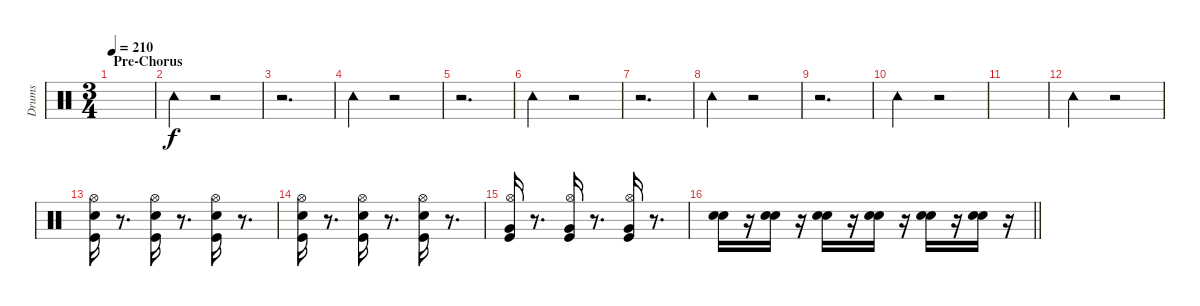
\track ("Drums" "Drums") {instrument percussion}
\staff {score}
\articulation defaults
\ts (3 4)
\section ("" "Pre-Chorus")
\tempo 210
\clef neutral
\ks c
|
"Tambourine (hit)".4 r.2 |
r.2{d} |
"Tambourine (hit)".4 r.2 |
r.2{d} |
"Tambourine (hit)".4 r.2 |
r.2{d} |
"Tambourine (hit)".4 r.2 |
r.2{d} |
"Tambourine (hit)".4 r.2 |
|
"Tambourine (hit)".4 r.2 |
("Electric Snare (hit)" "Kick (hit)" "Hi-Hat (open)").16 r.8{d} ("Electric Snare (hit)" "Kick (hit)" "Hi-Hat (open)").16 r.8{d} ("Electric Snare (hit)" "Kick (hit)" "Hi-Hat (open)").16 r.8{d} |
("Electric Snare (hit)" "Kick (hit)" "Hi-Hat (open)").16 r.8{d} ("Electric Snare (hit)" "Kick (hit)" "Hi-Hat (open)").16 r.8{d} ("Electric Snare (hit)" "Kick (hit)" "Hi-Hat (open)").16 r.8{d} |
("Kick (hit)" "Hi-Hat (open)" "Very Low Tom (hit)").16 r.8{d} ("Kick (hit)" "Hi-Hat (open)" "Very Low Tom (hit)").16 r.8{d} ("Kick (hit)" "Hi-Hat (open)" "Very Low Tom (hit)").16 r.8{d} |
\barLineRight lightlight
("Snare (hit) 2" "Electric Snare (hit)").16 r.16 ("Snare (hit) 2" "Electric Snare (hit)").16 r.16 ("Snare (hit) 2" "Electric Snare (hit)").16 r.16 ("Snare (hit) 2" "Electric Snare (hit)").16 r.16 ("Snare (hit) 2" "Electric Snare (hit)").16 r.16 ("Snare (hit) 2" "Electric Snare (hit)").16 r.16
